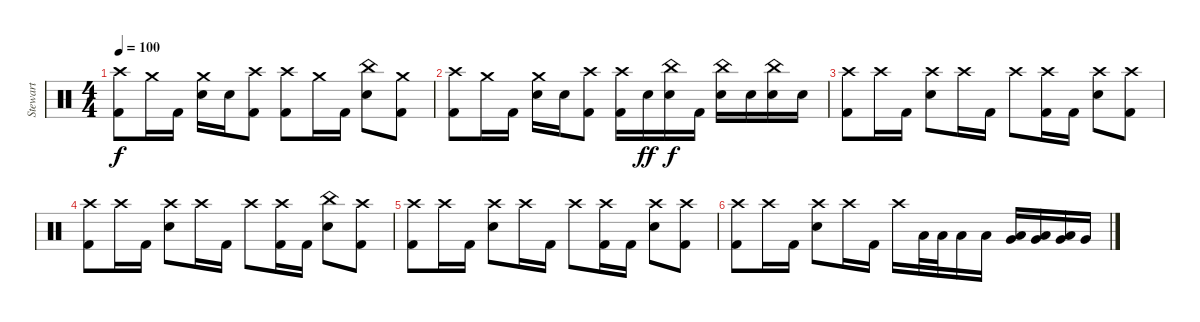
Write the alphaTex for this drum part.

\track ("Stewart" "Stewart") {instrument percussion}
\staff {score}
\articulation defaults
\ts (4 4)
\tempo 100
\clef neutral
\ks c
("Crash high (hit)" "Kick (hit) 2").8{dy f} "Crash medium (hit)".16 "Kick (hit) 2".16 ("Crash medium (hit)" "Electric Snare (hit)").16 "Electric Snare (hit)".16 ("Crash high (hit)" "Kick (hit) 2").8 ("Crash high (hit)" "Kick (hit) 2").8 "Crash medium (hit)".16 "Kick (hit) 2".16 ("China (hit)" "Electric Snare (hit)").8 ("Crash medium (hit)" "Kick (hit) 2").8 |
("Crash high (hit)" "Kick (hit) 2").8 "Crash medium (hit)".16 "Kick (hit) 2".16 ("Crash medium (hit)" "Electric Snare (hit)").16 "Electric Snare (hit)".16 ("Crash high (hit)" "Kick (hit) 2").8 ("Crash high (hit)" "Kick (hit) 2").16 "Electric Snare (hit)".16{dy ff} ("China (hit)" "Electric Snare (hit)").16{dy f} "Kick (hit) 2".16 ("China (hit)" "Electric Snare (hit)").16 "Electric Snare (hit)".16 ("China (hit)" "Electric Snare (hit)").16 "Electric Snare (hit)".16 |
("Crash high (hit)" "Kick (hit) 2").8 "Crash high (hit)".16 "Kick (hit) 2".16 ("Crash high (hit)" "Electric Snare (hit)").8 "Crash high (hit)".16 "Kick (hit) 2".16 "Crash high (hit)".8 ("Crash high (hit)" "Kick (hit) 2").16 "Kick (hit) 2".16 ("Crash high (hit)" "Electric Snare (hit)").8 ("Crash high (hit)" "Kick (hit) 2").8 |
("Crash high (hit)" "Kick (hit) 2").8 "Crash high (hit)".16 "Kick (hit) 2".16 ("Crash high (hit)" "Electric Snare (hit)").8 "Crash high (hit)".16 "Kick (hit) 2".16 "Crash high (hit)".8 ("Crash high (hit)" "Kick (hit) 2").16 "Kick (hit) 2".16 ("China (hit)" "Electric Snare (hit)").8 ("Crash high (hit)" "Kick (hit) 2").8 |
("Crash high (hit)" "Kick (hit) 2").8 "Crash high (hit)".16 "Kick (hit) 2".16 ("Crash high (hit)" "Electric Snare (hit)").8 "Crash high (hit)".16 "Kick (hit) 2".16 "Crash high (hit)".8 ("Crash high (hit)" "Kick (hit) 2").16 "Kick (hit) 2".16 ("Crash high (hit)" "Electric Snare (hit)").8 ("Crash high (hit)" "Kick (hit) 2").8 |
("Crash high (hit)" "Kick (hit) 2").8 "Crash high (hit)".16 "Kick (hit) 2".16 ("Crash high (hit)" "Electric Snare (hit)").8 "Crash high (hit)".16 "Kick (hit) 2".16 "Crash high (hit)".16 "Low Tom (hit)".32 "Low Tom (hit)".32 "Low Tom (hit)".16 "Low Tom (hit)".16 ("Low Tom (hit)" "Very Low Tom (hit)").16 ("Low Tom (hit)" "Very Low Tom (hit)").16 ("Low Tom (hit)" "Very Low Tom (hit)").16 "Very Low Tom (hit)".16
